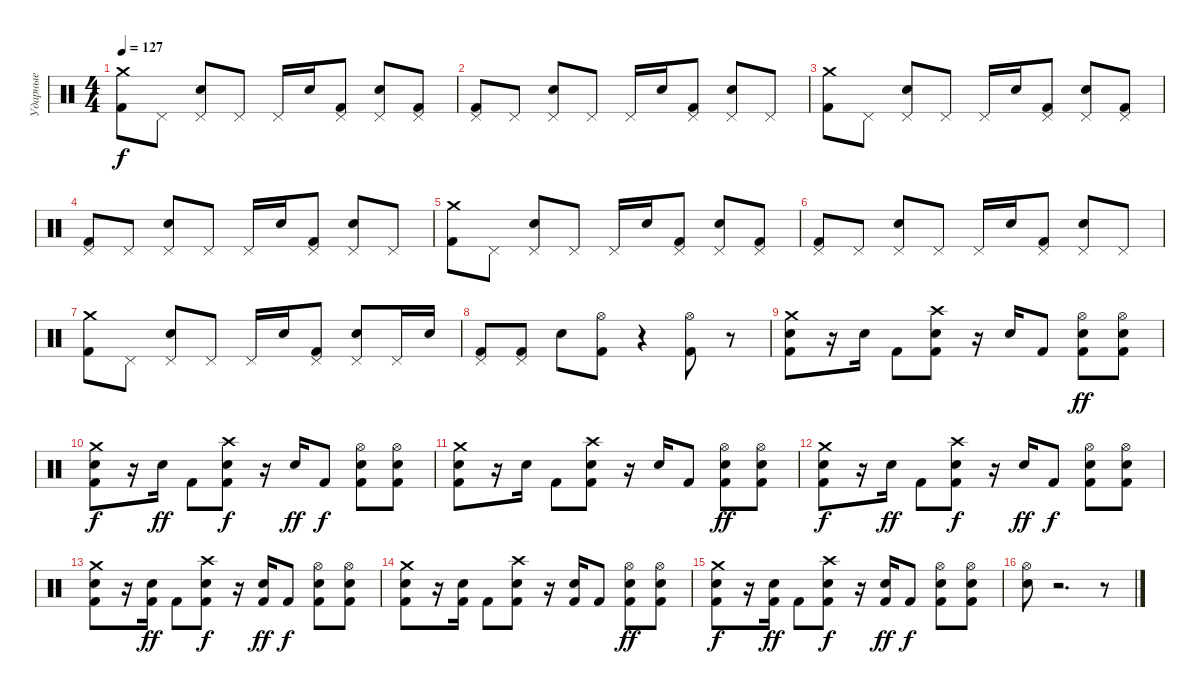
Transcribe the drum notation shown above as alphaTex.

\track ("Ударные" "Ударные") {instrument percussion}
\staff {score}
\articulation defaults
\ts (4 4)
\tempo 127
\clef neutral
\ks c
("Crash medium (hit)" "Kick (hit) 2").8{dy f} "Pedal Hi-Hat (hit)".8 ("Pedal Hi-Hat (hit)" "Electric Snare (hit)").8 "Pedal Hi-Hat (hit)".8 "Pedal Hi-Hat (hit)".16 "Electric Snare (hit)".16 ("Kick (hit) 2" "Pedal Hi-Hat (hit)").8 ("Electric Snare (hit)" "Pedal Hi-Hat (hit)").8 ("Pedal Hi-Hat (hit)" "Kick (hit) 2").8 |
("Pedal Hi-Hat (hit)" "Kick (hit) 2").8 "Pedal Hi-Hat (hit)".8 ("Electric Snare (hit)" "Pedal Hi-Hat (hit)").8 "Pedal Hi-Hat (hit)".8 "Pedal Hi-Hat (hit)".16 "Electric Snare (hit)".16 ("Kick (hit) 2" "Pedal Hi-Hat (hit)").8 ("Electric Snare (hit)" "Pedal Hi-Hat (hit)").8 "Pedal Hi-Hat (hit)".8 |
("Kick (hit) 2" "Crash medium (hit)").8 "Pedal Hi-Hat (hit)".8 ("Pedal Hi-Hat (hit)" "Electric Snare (hit)").8 "Pedal Hi-Hat (hit)".8 "Pedal Hi-Hat (hit)".16 "Electric Snare (hit)".16 ("Kick (hit) 2" "Pedal Hi-Hat (hit)").8 ("Electric Snare (hit)" "Pedal Hi-Hat (hit)").8 ("Pedal Hi-Hat (hit)" "Kick (hit) 2").8 |
("Pedal Hi-Hat (hit)" "Kick (hit) 2").8 "Pedal Hi-Hat (hit)".8 ("Pedal Hi-Hat (hit)" "Electric Snare (hit)").8 "Pedal Hi-Hat (hit)".8 "Pedal Hi-Hat (hit)".16 "Electric Snare (hit)".16 ("Kick (hit) 2" "Pedal Hi-Hat (hit)").8 ("Electric Snare (hit)" "Pedal Hi-Hat (hit)").8 "Pedal Hi-Hat (hit)".8 |
("Kick (hit) 2" "Crash medium (hit)").8 "Pedal Hi-Hat (hit)".8 ("Pedal Hi-Hat (hit)" "Electric Snare (hit)").8 "Pedal Hi-Hat (hit)".8 "Pedal Hi-Hat (hit)".16 "Electric Snare (hit)".16 ("Kick (hit) 2" "Pedal Hi-Hat (hit)").8 ("Electric Snare (hit)" "Pedal Hi-Hat (hit)").8 ("Pedal Hi-Hat (hit)" "Kick (hit) 2").8 |
("Kick (hit) 2" "Pedal Hi-Hat (hit)").8 "Pedal Hi-Hat (hit)".8 ("Electric Snare (hit)" "Pedal Hi-Hat (hit)").8 "Pedal Hi-Hat (hit)".8 "Pedal Hi-Hat (hit)".16 "Electric Snare (hit)".16 ("Kick (hit) 2" "Pedal Hi-Hat (hit)").8 ("Electric Snare (hit)" "Pedal Hi-Hat (hit)").8 "Pedal Hi-Hat (hit)".8 |
("Kick (hit) 2" "Crash medium (hit)").8 "Pedal Hi-Hat (hit)".8 ("Pedal Hi-Hat (hit)" "Electric Snare (hit)").8 "Pedal Hi-Hat (hit)".8 "Pedal Hi-Hat (hit)".16 "Electric Snare (hit)".16 ("Kick (hit) 2" "Pedal Hi-Hat (hit)").8 ("Electric Snare (hit)" "Pedal Hi-Hat (hit)").8 "Pedal Hi-Hat (hit)".16 "Electric Snare (hit)".16 |
("Pedal Hi-Hat (hit)" "Kick (hit) 2").8 ("Pedal Hi-Hat (hit)" "Kick (hit) 2").8 "Electric Snare (hit)".8 ("Kick (hit) 2" "Hi-Hat (open)").8 r.4 ("Hi-Hat (open)" "Kick (hit) 2").8 r.8 |
("Crash medium (hit)" "Electric Snare (hit)" "Kick (hit) 2").8 r.16 "Electric Snare (hit)".16 "Kick (hit) 2".8 ("Crash high (hit)" "Electric Snare (hit)" "Kick (hit) 2").8 r.16 "Electric Snare (hit)".16 "Kick (hit) 2".8 ("Hi-Hat (open)" "Electric Snare (hit)" "Kick (hit) 2").8{dy ff} ("Hi-Hat (open)" "Kick (hit) 2" "Electric Snare (hit)").8 |
("Crash medium (hit)" "Electric Snare (hit)" "Kick (hit) 2").8{dy f} r.16 "Electric Snare (hit)".16{dy ff} "Kick (hit) 2".8 ("Crash high (hit)" "Electric Snare (hit)" "Kick (hit) 2").8{dy f} r.16 "Electric Snare (hit)".16{dy ff} "Kick (hit) 2".8{dy f} ("Hi-Hat (open)" "Electric Snare (hit)" "Kick (hit) 2").8 ("Electric Snare (hit)" "Kick (hit) 2" "Hi-Hat (open)").8 |
("Kick (hit) 2" "Electric Snare (hit)" "Crash medium (hit)").8 r.16 "Electric Snare (hit)".16 "Kick (hit) 2".8 ("Kick (hit) 2" "Electric Snare (hit)" "Crash high (hit)").8 r.16 "Electric Snare (hit)".16 "Kick (hit) 2".8 ("Kick (hit) 2" "Electric Snare (hit)" "Hi-Hat (open)").8{dy ff} ("Hi-Hat (open)" "Kick (hit) 2" "Electric Snare (hit)").8 |
("Crash medium (hit)" "Electric Snare (hit)" "Kick (hit) 2").8{dy f} r.16 "Electric Snare (hit)".16{dy ff} "Kick (hit) 2".8 ("Crash high (hit)" "Electric Snare (hit)" "Kick (hit) 2").8{dy f} r.16 "Electric Snare (hit)".16{dy ff} "Kick (hit) 2".8{dy f} ("Hi-Hat (open)" "Electric Snare (hit)" "Kick (hit) 2").8 ("Electric Snare (hit)" "Kick (hit) 2" "Hi-Hat (open)").8 |
("Crash medium (hit)" "Electric Snare (hit)" "Kick (hit) 2").8 r.16 ("Kick (hit) 2" "Electric Snare (hit)").16{dy ff} "Kick (hit) 2".8 ("Crash high (hit)" "Electric Snare (hit)" "Kick (hit) 2").8{dy f} r.16 ("Kick (hit) 2" "Electric Snare (hit)").16{dy ff} "Kick (hit) 2".8{dy f} ("Hi-Hat (open)" "Electric Snare (hit)" "Kick (hit) 2").8 ("Hi-Hat (open)" "Kick (hit) 2" "Electric Snare (hit)").8 |
("Crash medium (hit)" "Electric Snare (hit)" "Kick (hit) 2").8 r.16 ("Kick (hit) 2" "Electric Snare (hit)").16 "Kick (hit) 2".8 ("Crash high (hit)" "Electric Snare (hit)" "Kick (hit) 2").8 r.16 ("Electric Snare (hit)" "Kick (hit) 2").16 "Kick (hit) 2".8 ("Hi-Hat (open)" "Electric Snare (hit)" "Kick (hit) 2").8{dy ff} ("Hi-Hat (open)" "Electric Snare (hit)" "Kick (hit) 2").8 |
("Crash medium (hit)" "Kick (hit) 2" "Electric Snare (hit)").8{dy f} r.16 ("Kick (hit) 2" "Electric Snare (hit)").16{dy ff} "Kick (hit) 2".8 ("Crash high (hit)" "Electric Snare (hit)" "Kick (hit) 2").8{dy f} r.16 ("Kick (hit) 2" "Electric Snare (hit)").16{dy ff} "Kick (hit) 2".8{dy f} ("Electric Snare (hit)" "Kick (hit) 2" "Hi-Hat (open)").8 ("Hi-Hat (open)" "Electric Snare (hit)" "Kick (hit) 2").8 |
("Hi-Hat (open)" "Electric Snare (hit)").8 r.2{d} r.8
